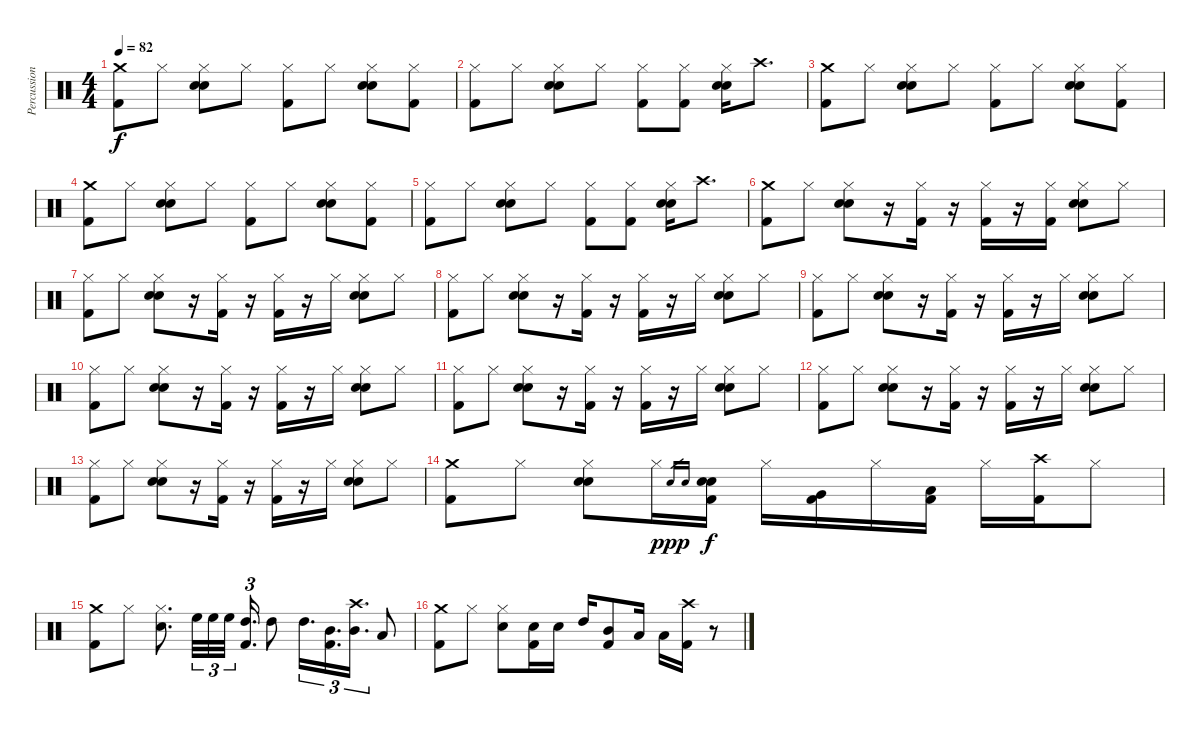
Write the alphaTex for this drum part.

\track ("Percussion" "Percussion") {instrument percussion}
\staff {score}
\articulation defaults
\ts (4 4)
\tempo 82
\clef neutral
\ks c
("Crash medium (hit)" "Kick (hit) 2").8{dy f} "Hi-Hat (closed)".8 ("Hi-Hat (closed)" "Snare (hit) 2" "Electric Snare (hit)").8 "Hi-Hat (closed)".8 ("Hi-Hat (closed)" "Kick (hit) 2").8 "Hi-Hat (closed)".8 ("Hi-Hat (closed)" "Snare (hit) 2" "Electric Snare (hit)").8 ("Hi-Hat (closed)" "Kick (hit) 2").8 |
("Hi-Hat (closed)" "Kick (hit) 2").8 "Hi-Hat (closed)".8 ("Hi-Hat (closed)" "Snare (hit) 2" "Electric Snare (hit)").8 "Hi-Hat (closed)".8 ("Hi-Hat (closed)" "Kick (hit) 2").8 ("Hi-Hat (closed)" "Kick (hit) 2").8 ("Hi-Hat (closed)" "Snare (hit) 2" "Electric Snare (hit)").16 "Crash high (hit)".8{d} |
("Crash medium (hit)" "Kick (hit) 2").8 "Hi-Hat (closed)".8 ("Hi-Hat (closed)" "Snare (hit) 2" "Electric Snare (hit)").8 "Hi-Hat (closed)".8 ("Hi-Hat (closed)" "Kick (hit) 2").8 "Hi-Hat (closed)".8 ("Hi-Hat (closed)" "Snare (hit) 2" "Electric Snare (hit)").8 ("Hi-Hat (closed)" "Kick (hit) 2").8 |
("Crash medium (hit)" "Kick (hit) 2").8 "Hi-Hat (closed)".8 ("Hi-Hat (closed)" "Snare (hit) 2" "Electric Snare (hit)").8 "Hi-Hat (closed)".8 ("Hi-Hat (closed)" "Kick (hit) 2").8 "Hi-Hat (closed)".8 ("Hi-Hat (closed)" "Snare (hit) 2" "Electric Snare (hit)").8 ("Hi-Hat (closed)" "Kick (hit) 2").8 |
("Hi-Hat (closed)" "Kick (hit) 2").8 "Hi-Hat (closed)".8 ("Hi-Hat (closed)" "Snare (hit) 2" "Electric Snare (hit)").8 "Hi-Hat (closed)".8 ("Hi-Hat (closed)" "Kick (hit) 2").8 ("Hi-Hat (closed)" "Kick (hit) 2").8 ("Hi-Hat (closed)" "Snare (hit) 2" "Electric Snare (hit)").16 "Crash high (hit)".8{d} |
("Crash medium (hit)" "Kick (hit) 2").8 "Hi-Hat (closed)".8 ("Hi-Hat (closed)" "Snare (hit) 2" "Electric Snare (hit)").8 r.16 ("Hi-Hat (closed)" "Kick (hit) 2").16 r.16 ("Hi-Hat (closed)" "Kick (hit) 2").16 r.16 ("Hi-Hat (closed)" "Kick (hit) 2").16 ("Hi-Hat (closed)" "Snare (hit) 2" "Electric Snare (hit)").8 "Hi-Hat (closed)".8 |
("Hi-Hat (closed)" "Kick (hit) 2").8 "Hi-Hat (closed)".8 ("Hi-Hat (closed)" "Snare (hit) 2" "Electric Snare (hit)").8 r.16 ("Hi-Hat (closed)" "Kick (hit) 2").16 r.16 ("Hi-Hat (closed)" "Kick (hit) 2").16 r.16 "Hi-Hat (closed)".16 ("Hi-Hat (closed)" "Snare (hit) 2" "Electric Snare (hit)").8 "Hi-Hat (closed)".8 |
("Hi-Hat (closed)" "Kick (hit) 2").8 "Hi-Hat (closed)".8 ("Hi-Hat (closed)" "Snare (hit) 2" "Electric Snare (hit)").8 r.16 ("Hi-Hat (closed)" "Kick (hit) 2").16 r.16 ("Hi-Hat (closed)" "Kick (hit) 2").16 r.16 "Hi-Hat (closed)".16 ("Hi-Hat (closed)" "Snare (hit) 2" "Electric Snare (hit)").8 "Hi-Hat (closed)".8 |
("Hi-Hat (closed)" "Kick (hit) 2").8 "Hi-Hat (closed)".8 ("Hi-Hat (closed)" "Snare (hit) 2" "Electric Snare (hit)").8 r.16 ("Hi-Hat (closed)" "Kick (hit) 2").16 r.16 ("Hi-Hat (closed)" "Kick (hit) 2").16 r.16 "Hi-Hat (closed)".16 ("Hi-Hat (closed)" "Snare (hit) 2" "Electric Snare (hit)").8 "Hi-Hat (closed)".8 |
("Hi-Hat (closed)" "Kick (hit) 2").8 "Hi-Hat (closed)".8 ("Hi-Hat (closed)" "Snare (hit) 2" "Electric Snare (hit)").8 r.16 ("Hi-Hat (closed)" "Kick (hit) 2").16 r.16 ("Hi-Hat (closed)" "Kick (hit) 2").16 r.16 "Hi-Hat (closed)".16 ("Hi-Hat (closed)" "Snare (hit) 2" "Electric Snare (hit)").8 "Hi-Hat (closed)".8 |
("Hi-Hat (closed)" "Kick (hit) 2").8 "Hi-Hat (closed)".8 ("Hi-Hat (closed)" "Snare (hit) 2" "Electric Snare (hit)").8 r.16 ("Hi-Hat (closed)" "Kick (hit) 2").16 r.16 ("Hi-Hat (closed)" "Kick (hit) 2").16 r.16 "Hi-Hat (closed)".16 ("Hi-Hat (closed)" "Snare (hit) 2" "Electric Snare (hit)").8 "Hi-Hat (closed)".8 |
("Hi-Hat (closed)" "Kick (hit) 2").8 "Hi-Hat (closed)".8 ("Hi-Hat (closed)" "Snare (hit) 2" "Electric Snare (hit)").8 r.16 ("Hi-Hat (closed)" "Kick (hit) 2").16 r.16 ("Hi-Hat (closed)" "Kick (hit) 2").16 r.16 "Hi-Hat (closed)".16 ("Hi-Hat (closed)" "Snare (hit) 2" "Electric Snare (hit)").8 "Hi-Hat (closed)".8 |
("Hi-Hat (closed)" "Kick (hit) 2").8 "Hi-Hat (closed)".8 ("Hi-Hat (closed)" "Snare (hit) 2" "Electric Snare (hit)").8 r.16 ("Hi-Hat (closed)" "Kick (hit) 2").16 r.16 ("Hi-Hat (closed)" "Kick (hit) 2").16 r.16 "Hi-Hat (closed)".16 ("Hi-Hat (closed)" "Snare (hit) 2" "Electric Snare (hit)").8 "Hi-Hat (closed)".8 |
("Crash medium (hit)" "Kick (hit) 2").8 "Hi-Hat (closed)".8 ("Hi-Hat (closed)" "Snare (hit) 2" "Electric Snare (hit)").8 "Hi-Hat (closed)".16 "Snare (hit) 2".16{gr dy ppp} "Electric Snare (hit)".16{gr} ("Snare (hit) 2" "Electric Snare (hit)" "Kick (hit) 2").16{dy f} "Hi-Hat (closed)".16 ("Very Low Tom (hit)" "Kick (hit) 2").16 "Hi-Hat (closed)".16 ("Low Floor Tom (hit)" "Kick (hit) 2").16 "Hi-Hat (closed)".16 ("Crash high (hit)" "Kick (hit) 2").16 "Hi-Hat (closed)".8 |
("Crash medium (hit)" "Kick (hit) 2").8 "Hi-Hat (closed)".8 ("Hi-Hat (closed)" "Electric Snare (hit)").8{d} "High Floor Tom (hit)".32{tu (3 2)} "High Floor Tom (hit)".32{tu (3 2)} "High Floor Tom (hit)".32{tu (3 2)} ("High Tom (hit)" "Kick (hit) 2").16{d tu (3 2)} "High Tom (hit)".8 "High Tom (hit)".16{d tu (3 2)} ("Mid Tom (hit)" "Kick (hit) 2").16{d tu (3 2)} ("Crash high (hit)" "Mid Tom (hit)").16{d tu (3 2)} "Low Floor Tom (hit)".8 |
("Crash medium (hit)" "Kick (hit) 2").8 "Hi-Hat (closed)".8 ("Hi-Hat (closed)" "Electric Snare (hit)").8 ("Electric Snare (hit)" "Kick (hit) 2").16 "Electric Snare (hit)".16 "High Tom (hit)".16 ("Mid Tom (hit)" "Kick (hit) 2").8 "Low Floor Tom (hit)".16 "Low Floor Tom (hit)".16 ("Crash high (hit)" "Kick (hit) 2").16 r.8
